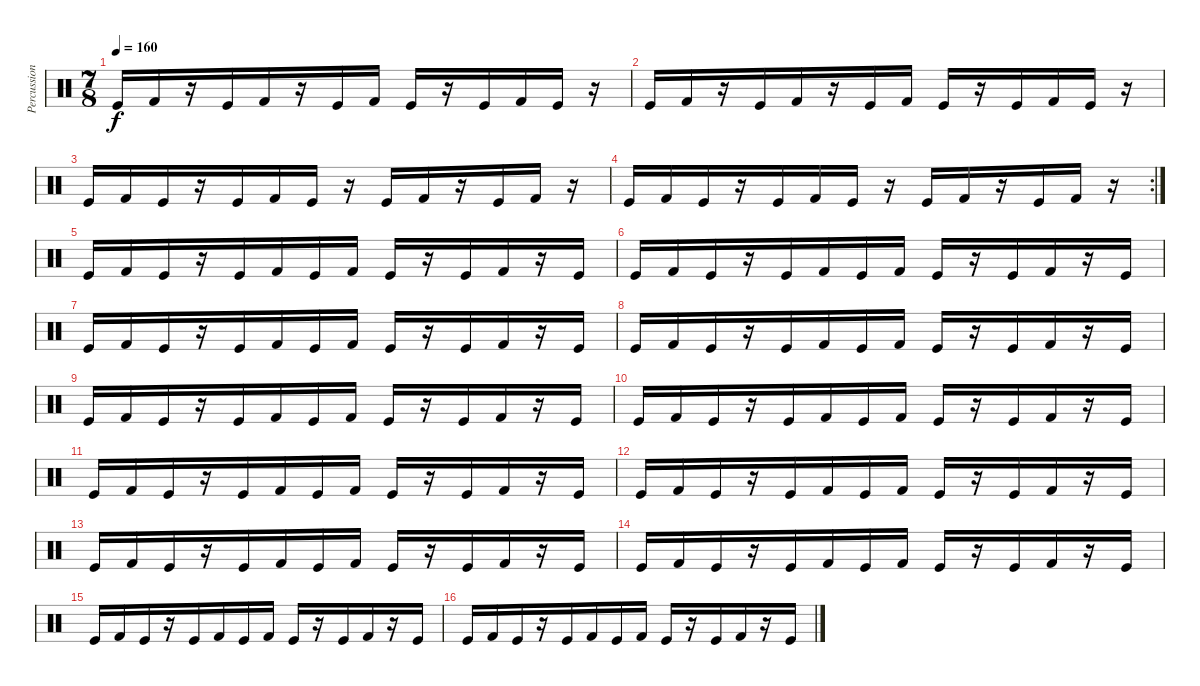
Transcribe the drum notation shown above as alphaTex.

\track ("Percussion" "Percussion") {instrument percussion}
\staff {score}
\articulation defaults
\ts (7 8)
\tempo 160
\clef neutral
\ks c "Kick (hit)".16{dy f} "Kick (hit) 2".16
r.16 "Kick (hit)".16 "Kick (hit) 2".16 r.16 "Kick (hit)".16 "Kick (hit) 2".16 "Kick (hit)".16 r.16 "Kick (hit)".16 "Kick (hit) 2".16 "Kick (hit)".16 r.16 |
"Kick (hit)".16 "Kick (hit) 2".16 r.16 "Kick (hit)".16 "Kick (hit) 2".16 r.16 "Kick (hit)".16 "Kick (hit) 2".16 "Kick (hit)".16 r.16 "Kick (hit)".16 "Kick (hit) 2".16 "Kick (hit)".16 r.16 |
"Kick (hit)".16 "Kick (hit) 2".16 "Kick (hit)".16 r.16 "Kick (hit)".16 "Kick (hit) 2".16 "Kick (hit)".16 r.16 "Kick (hit)".16 "Kick (hit) 2".16 r.16 "Kick (hit)".16 "Kick (hit) 2".16 r.16 |
\rc 2 "Kick (hit)".16 "Kick (hit) 2".16 "Kick (hit)".16
r.16 "Kick (hit)".16 "Kick (hit) 2".16 "Kick (hit)".16 r.16 "Kick (hit)".16 "Kick (hit) 2".16 r.16 "Kick (hit)".16 "Kick (hit) 2".16 r.16 |
"Kick (hit)".16 "Kick (hit) 2".16 "Kick (hit)".16 r.16 "Kick (hit)".16 "Kick (hit) 2".16 "Kick (hit)".16 "Kick (hit) 2".16 "Kick (hit)".16 r.16 "Kick (hit)".16 "Kick (hit) 2".16 r.16 "Kick (hit)".16 |
"Kick (hit)".16 "Kick (hit) 2".16 "Kick (hit)".16 r.16 "Kick (hit)".16 "Kick (hit) 2".16 "Kick (hit)".16 "Kick (hit) 2".16 "Kick (hit)".16 r.16 "Kick (hit)".16 "Kick (hit) 2".16 r.16 "Kick (hit)".16 |
"Kick (hit)".16 "Kick (hit) 2".16 "Kick (hit)".16 r.16 "Kick (hit)".16 "Kick (hit) 2".16 "Kick (hit)".16 "Kick (hit) 2".16 "Kick (hit)".16 r.16 "Kick (hit)".16 "Kick (hit) 2".16 r.16 "Kick (hit)".16 |
"Kick (hit)".16 "Kick (hit) 2".16 "Kick (hit)".16 r.16 "Kick (hit)".16 "Kick (hit) 2".16 "Kick (hit)".16 "Kick (hit) 2".16 "Kick (hit)".16 r.16 "Kick (hit)".16 "Kick (hit) 2".16 r.16 "Kick (hit)".16 |
"Kick (hit)".16 "Kick (hit) 2".16 "Kick (hit)".16 r.16 "Kick (hit)".16 "Kick (hit) 2".16 "Kick (hit)".16 "Kick (hit) 2".16 "Kick (hit)".16 r.16 "Kick (hit)".16 "Kick (hit) 2".16 r.16 "Kick (hit)".16 |
"Kick (hit)".16 "Kick (hit) 2".16 "Kick (hit)".16 r.16 "Kick (hit)".16 "Kick (hit) 2".16 "Kick (hit)".16 "Kick (hit) 2".16 "Kick (hit)".16 r.16 "Kick (hit)".16 "Kick (hit) 2".16 r.16 "Kick (hit)".16 |
"Kick (hit)".16 "Kick (hit) 2".16 "Kick (hit)".16 r.16 "Kick (hit)".16 "Kick (hit) 2".16 "Kick (hit)".16 "Kick (hit) 2".16 "Kick (hit)".16 r.16 "Kick (hit)".16 "Kick (hit) 2".16 r.16 "Kick (hit)".16 |
"Kick (hit)".16 "Kick (hit) 2".16 "Kick (hit)".16 r.16 "Kick (hit)".16 "Kick (hit) 2".16 "Kick (hit)".16 "Kick (hit) 2".16 "Kick (hit)".16 r.16 "Kick (hit)".16 "Kick (hit) 2".16 r.16 "Kick (hit)".16 |
"Kick (hit)".16 "Kick (hit) 2".16 "Kick (hit)".16 r.16 "Kick (hit)".16 "Kick (hit) 2".16 "Kick (hit)".16 "Kick (hit) 2".16 "Kick (hit)".16 r.16 "Kick (hit)".16 "Kick (hit) 2".16 r.16 "Kick (hit)".16 |
"Kick (hit)".16 "Kick (hit) 2".16 "Kick (hit)".16 r.16 "Kick (hit)".16 "Kick (hit) 2".16 "Kick (hit)".16 "Kick (hit) 2".16 "Kick (hit)".16 r.16 "Kick (hit)".16 "Kick (hit) 2".16 r.16 "Kick (hit)".16 |
"Kick (hit)".16 "Kick (hit) 2".16 "Kick (hit)".16 r.16 "Kick (hit)".16 "Kick (hit) 2".16 "Kick (hit)".16 "Kick (hit) 2".16 "Kick (hit)".16 r.16 "Kick (hit)".16 "Kick (hit) 2".16 r.16 "Kick (hit)".16 |
"Kick (hit)".16 "Kick (hit) 2".16 "Kick (hit)".16 r.16 "Kick (hit)".16 "Kick (hit) 2".16 "Kick (hit)".16 "Kick (hit) 2".16 "Kick (hit)".16 r.16 "Kick (hit)".16 "Kick (hit) 2".16 r.16 "Kick (hit)".16
